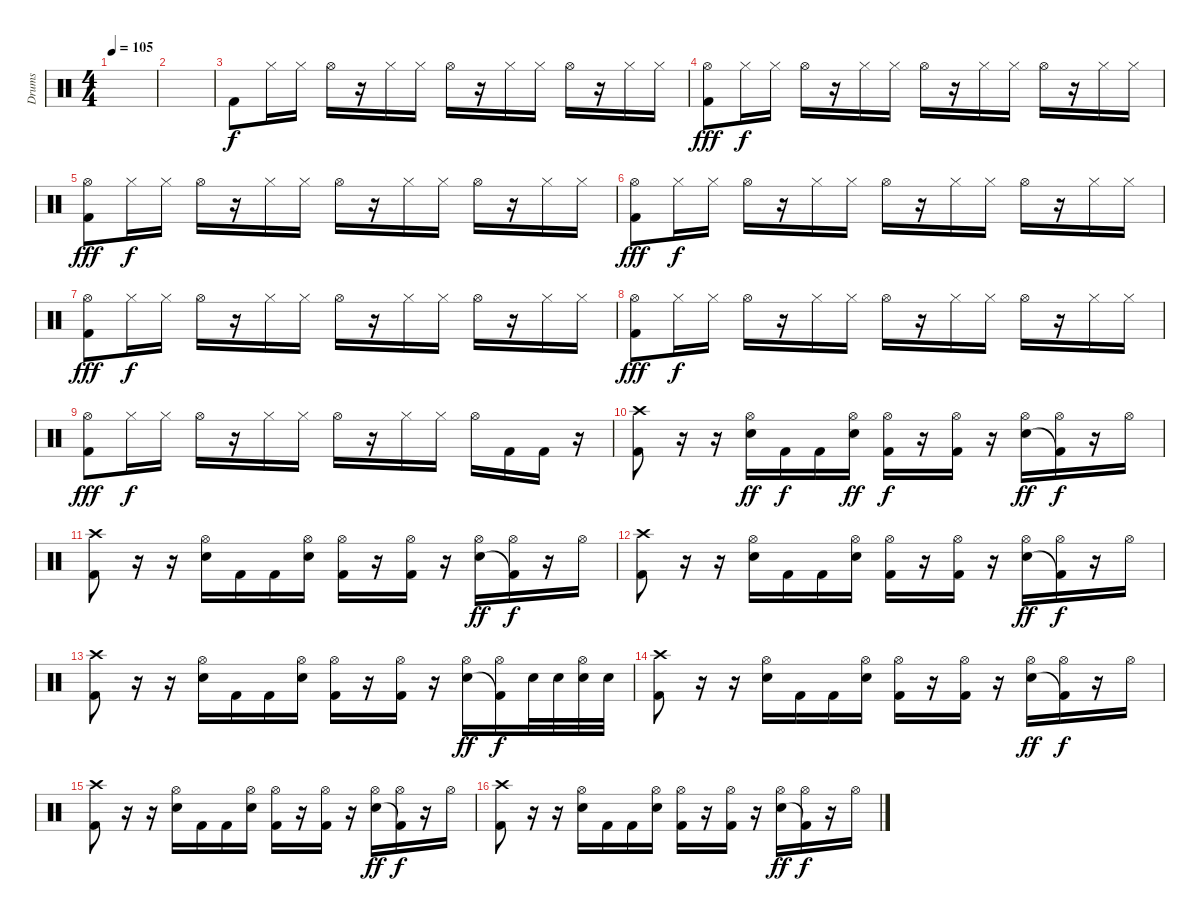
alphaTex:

\track ("Drums" "Drums") {instrument percussion}
\staff {score}
\articulation defaults
\ts (4 4)
\tempo 105
\clef neutral
\ks c
|
|
"Kick (hit) 2".8 "Hi-Hat (closed)".16{dy f} "Hi-Hat (closed)".16 "Hi-Hat (open)".16 r.16 "Hi-Hat (closed)".16 "Hi-Hat (closed)".16 "Hi-Hat (open)".16 r.16 "Hi-Hat (closed)".16 "Hi-Hat (closed)".16 "Hi-Hat (open)".16 r.16 "Hi-Hat (closed)".16 "Hi-Hat (closed)".16 |
("Hi-Hat (open)" "Kick (hit) 2").8{dy fff} "Hi-Hat (closed)".16{dy f} "Hi-Hat (closed)".16 "Hi-Hat (open)".16 r.16 "Hi-Hat (closed)".16 "Hi-Hat (closed)".16 "Hi-Hat (open)".16 r.16 "Hi-Hat (closed)".16 "Hi-Hat (closed)".16 "Hi-Hat (open)".16 r.16 "Hi-Hat (closed)".16 "Hi-Hat (closed)".16 |
("Hi-Hat (open)" "Kick (hit) 2").8{dy fff} "Hi-Hat (closed)".16{dy f} "Hi-Hat (closed)".16 "Hi-Hat (open)".16 r.16 "Hi-Hat (closed)".16 "Hi-Hat (closed)".16 "Hi-Hat (open)".16 r.16 "Hi-Hat (closed)".16 "Hi-Hat (closed)".16 "Hi-Hat (open)".16 r.16 "Hi-Hat (closed)".16 "Hi-Hat (closed)".16 |
("Hi-Hat (open)" "Kick (hit) 2").8{dy fff} "Hi-Hat (closed)".16{dy f} "Hi-Hat (closed)".16 "Hi-Hat (open)".16 r.16 "Hi-Hat (closed)".16 "Hi-Hat (closed)".16 "Hi-Hat (open)".16 r.16 "Hi-Hat (closed)".16 "Hi-Hat (closed)".16 "Hi-Hat (open)".16 r.16 "Hi-Hat (closed)".16 "Hi-Hat (closed)".16 |
("Hi-Hat (open)" "Kick (hit) 2").8{dy fff} "Hi-Hat (closed)".16{dy f} "Hi-Hat (closed)".16 "Hi-Hat (open)".16 r.16 "Hi-Hat (closed)".16 "Hi-Hat (closed)".16 "Hi-Hat (open)".16 r.16 "Hi-Hat (closed)".16 "Hi-Hat (closed)".16 "Hi-Hat (open)".16 r.16 "Hi-Hat (closed)".16 "Hi-Hat (closed)".16 |
("Hi-Hat (open)" "Kick (hit) 2").8{dy fff} "Hi-Hat (closed)".16{dy f} "Hi-Hat (closed)".16 "Hi-Hat (open)".16 r.16 "Hi-Hat (closed)".16 "Hi-Hat (closed)".16 "Hi-Hat (open)".16 r.16 "Hi-Hat (closed)".16 "Hi-Hat (closed)".16 "Hi-Hat (open)".16 r.16 "Hi-Hat (closed)".16 "Hi-Hat (closed)".16 |
("Hi-Hat (open)" "Kick (hit) 2").8{dy fff} "Hi-Hat (closed)".16{dy f} "Hi-Hat (closed)".16 "Hi-Hat (open)".16 r.16 "Hi-Hat (closed)".16 "Hi-Hat (closed)".16 "Hi-Hat (open)".16 r.16 "Hi-Hat (closed)".16 "Hi-Hat (closed)".16 "Hi-Hat (open)".16 "Kick (hit) 2".16 "Kick (hit) 2".16 r.16 |
("Crash high (hit)" "Kick (hit) 2").8 r.16 r.16 ("Hi-Hat (open)" "Electric Snare (hit)").16{dy ff} "Kick (hit) 2".16{dy f} "Kick (hit) 2".16 ("Hi-Hat (open)" "Electric Snare (hit)").16{dy ff} ("Hi-Hat (open)" "Kick (hit) 2").16{dy f} r.16 ("Hi-Hat (open)" "Kick (hit) 2").16 r.16 ("Hi-Hat (open)" "Electric Snare (hit)").16{dy ff} ("Hi-Hat (open)" "Kick (hit) 2"{t}).16{dy f} r.16 "Hi-Hat (open)".16 |
("Crash high (hit)" "Kick (hit) 2").8 r.16 r.16 ("Hi-Hat (open)" "Snare (hit) 2").16 "Kick (hit) 2".16 "Kick (hit) 2".16 ("Hi-Hat (open)" "Snare (hit) 2").16 ("Hi-Hat (open)" "Kick (hit) 2").16 r.16 ("Hi-Hat (open)" "Kick (hit) 2").16 r.16 ("Hi-Hat (open)" "Electric Snare (hit)").16{dy ff} ("Hi-Hat (open)" "Kick (hit) 2"{t}).16{dy f} r.16 "Hi-Hat (open)".16 |
("Crash high (hit)" "Kick (hit) 2").8 r.16 r.16 ("Hi-Hat (open)" "Snare (hit) 2").16 "Kick (hit) 2".16 "Kick (hit) 2".16 ("Hi-Hat (open)" "Snare (hit) 2").16 ("Hi-Hat (open)" "Kick (hit) 2").16 r.16 ("Hi-Hat (open)" "Kick (hit) 2").16 r.16 ("Hi-Hat (open)" "Electric Snare (hit)").16{dy ff} ("Hi-Hat (open)" "Kick (hit) 2"{t}).16{dy f} r.16 "Hi-Hat (open)".16 |
("Crash high (hit)" "Kick (hit) 2").8 r.16 r.16 ("Hi-Hat (open)" "Snare (hit) 2").16 "Kick (hit) 2".16 "Kick (hit) 2".16 ("Hi-Hat (open)" "Snare (hit) 2").16 ("Hi-Hat (open)" "Kick (hit) 2").16 r.16 ("Hi-Hat (open)" "Kick (hit) 2").16 r.16 ("Hi-Hat (open)" "Electric Snare (hit)").16{dy ff} ("Hi-Hat (open)" "Kick (hit) 2"{t}).16{dy f} "Electric Snare (hit)".32 "Electric Snare (hit)".32 ("Hi-Hat (open)" "Electric Snare (hit)").32 "Electric Snare (hit)".32 |
("Crash high (hit)" "Kick (hit) 2").8 r.16 r.16 ("Hi-Hat (open)" "Snare (hit) 2").16 "Kick (hit) 2".16 "Kick (hit) 2".16 ("Hi-Hat (open)" "Snare (hit) 2").16 ("Hi-Hat (open)" "Kick (hit) 2").16 r.16 ("Hi-Hat (open)" "Kick (hit) 2").16 r.16 ("Hi-Hat (open)" "Electric Snare (hit)").16{dy ff} ("Hi-Hat (open)" "Kick (hit) 2"{t}).16{dy f} r.16 "Hi-Hat (open)".16 |
("Crash high (hit)" "Kick (hit) 2").8 r.16 r.16 ("Hi-Hat (open)" "Snare (hit) 2").16 "Kick (hit) 2".16 "Kick (hit) 2".16 ("Hi-Hat (open)" "Snare (hit) 2").16 ("Hi-Hat (open)" "Kick (hit) 2").16 r.16 ("Hi-Hat (open)" "Kick (hit) 2").16 r.16 ("Hi-Hat (open)" "Electric Snare (hit)").16{dy ff} ("Hi-Hat (open)" "Kick (hit) 2"{t}).16{dy f} r.16 "Hi-Hat (open)".16 |
("Crash high (hit)" "Kick (hit) 2").8 r.16 r.16 ("Hi-Hat (open)" "Snare (hit) 2").16 "Kick (hit) 2".16 "Kick (hit) 2".16 ("Hi-Hat (open)" "Snare (hit) 2").16 ("Hi-Hat (open)" "Kick (hit) 2").16 r.16 ("Hi-Hat (open)" "Kick (hit) 2").16 r.16 ("Hi-Hat (open)" "Electric Snare (hit)").16{dy ff} ("Hi-Hat (open)" "Kick (hit) 2"{t}).16{dy f} r.16 "Hi-Hat (open)".16
